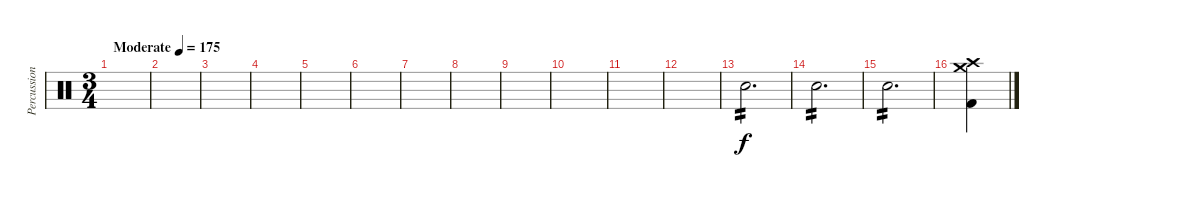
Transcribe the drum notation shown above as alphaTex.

\track ("Percussion" "Percussion") {instrument percussion}
\staff {score}
\articulation defaults
\ts (3 4)
\tempo (175 "Moderate")
\clef neutral
\ks c
|
|
|
|
|
|
|
|
|
|
|
|
"Snare (hit) 2".2{d tp 2 volume 13} |
"Snare (hit) 2".2{d tp 2} |
"Snare (hit) 2".2{d tp 2} |
("Crash high (hit)" "Crash medium (hit)" "Kick (hit) 2").4
